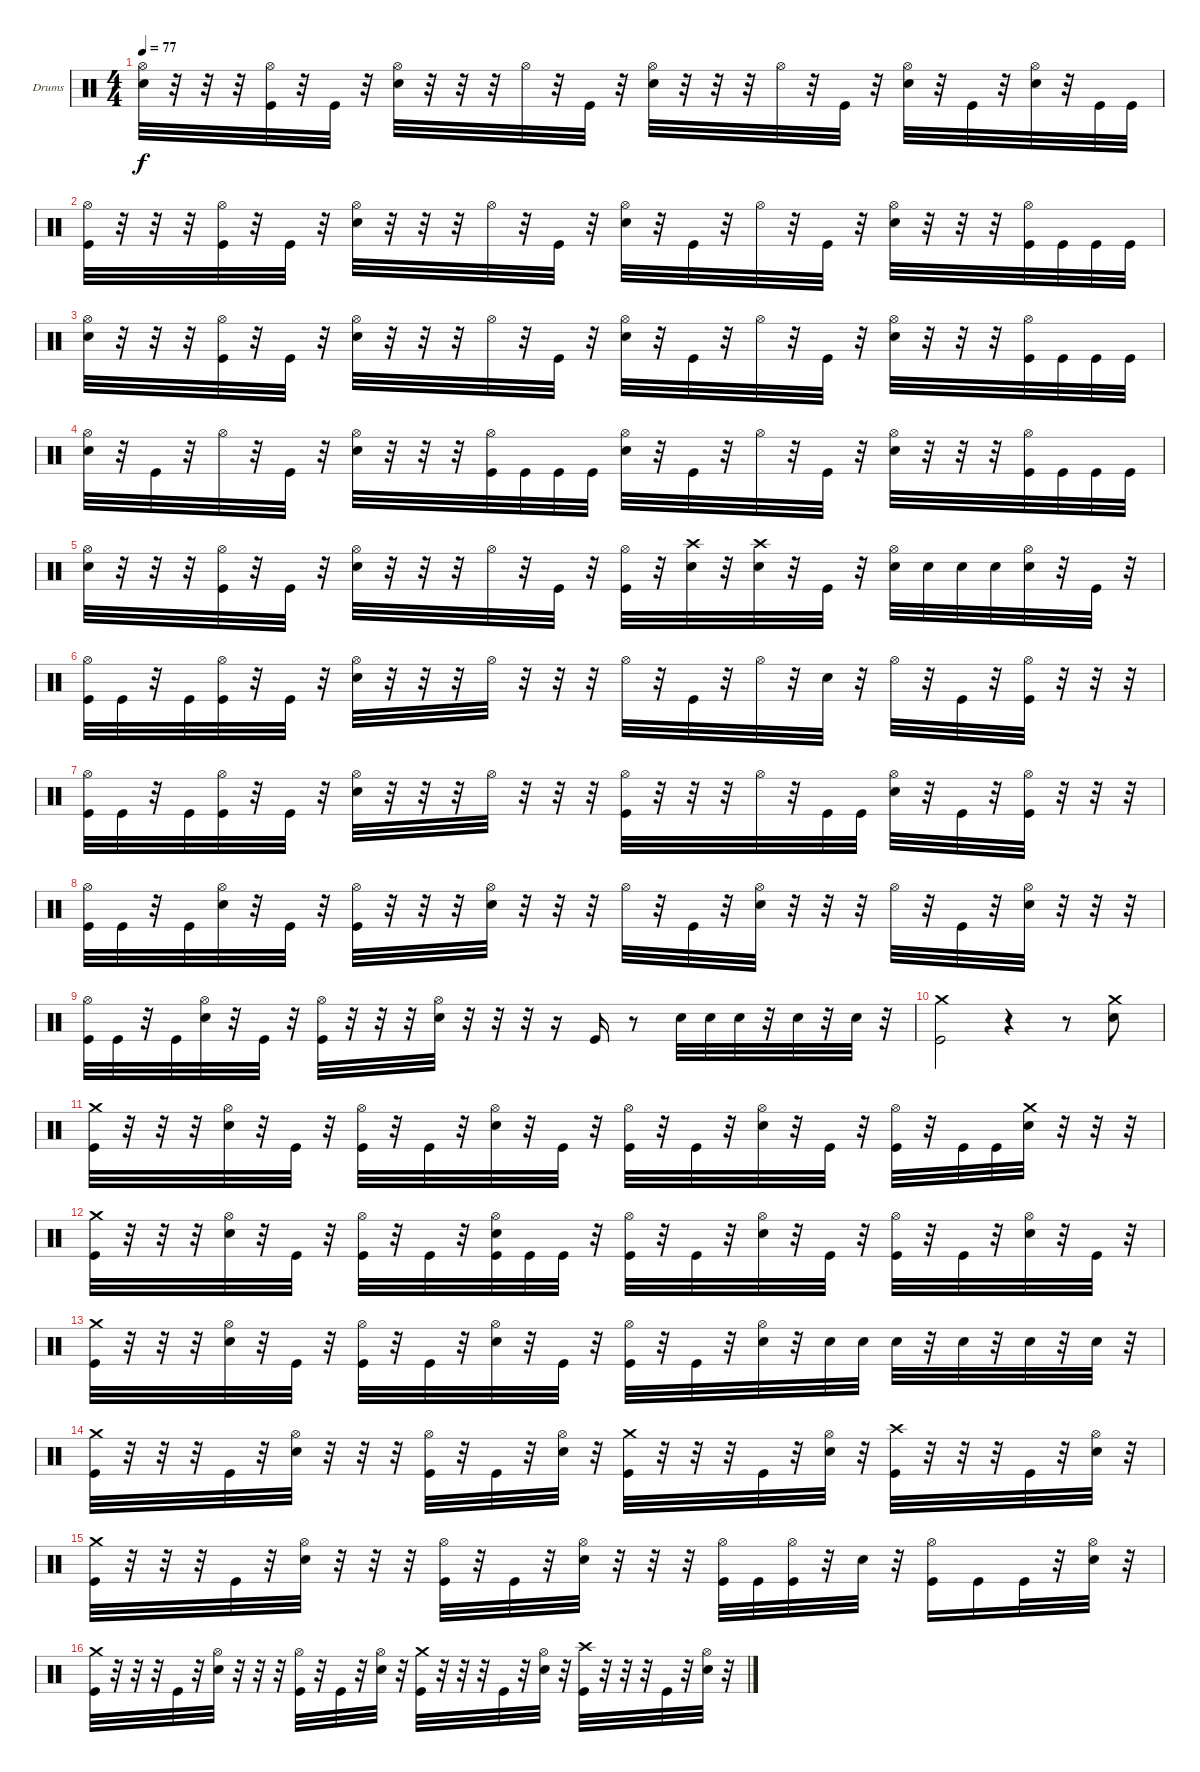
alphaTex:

\defaultSystemsLayout 4
\bracketExtendMode groupsimilarinstruments
\firstSystemTrackNameOrientation horizontal
\otherSystemsTrackNameOrientation horizontal
\track ("Drumkit" "Drums") {instrument percussion}
\staff {score}
\articulation defaults
\ts (4 4)
\tempo 77
\clef neutral
\ks c
("Hi-Hat (open)" "Snare (hit) 2").32{dy f} r.32 r.32 r.32 ("Hi-Hat (open)" "Kick (hit)").32 r.32 "Kick (hit)".32 r.32 ("Hi-Hat (open)" "Snare (hit) 2").32 r.32 r.32 r.32 "Hi-Hat (open)".32 r.32 "Kick (hit)".32 r.32 ("Hi-Hat (open)" "Snare (hit) 2").32 r.32 r.32 r.32 "Hi-Hat (open)".32 r.32 "Kick (hit)".32 r.32 ("Hi-Hat (open)" "Snare (hit) 2").32 r.32 "Kick (hit)".32 r.32 ("Hi-Hat (open)" "Snare (hit) 2").32 r.32 "Kick (hit)".32 "Kick (hit)".32 |
("Hi-Hat (open)" "Kick (hit)").32 r.32 r.32 r.32 ("Hi-Hat (open)" "Kick (hit)").32 r.32 "Kick (hit)".32 r.32 ("Hi-Hat (open)" "Snare (hit) 2").32 r.32 r.32 r.32 "Hi-Hat (open)".32 r.32 "Kick (hit)".32 r.32 ("Hi-Hat (open)" "Snare (hit) 2").32 r.32 "Kick (hit)".32 r.32 "Hi-Hat (open)".32 r.32 "Kick (hit)".32 r.32 ("Hi-Hat (open)" "Snare (hit) 2").32 r.32 r.32 r.32 ("Hi-Hat (open)" "Kick (hit)").32 "Kick (hit)".32 "Kick (hit)".32 "Kick (hit)".32 |
("Hi-Hat (open)" "Snare (hit) 2").32 r.32 r.32 r.32 ("Hi-Hat (open)" "Kick (hit)").32 r.32 "Kick (hit)".32 r.32 ("Hi-Hat (open)" "Snare (hit) 2").32 r.32 r.32 r.32 "Hi-Hat (open)".32 r.32 "Kick (hit)".32 r.32 ("Hi-Hat (open)" "Snare (hit) 2").32 r.32 "Kick (hit)".32 r.32 "Hi-Hat (open)".32 r.32 "Kick (hit)".32 r.32 ("Hi-Hat (open)" "Snare (hit) 2").32 r.32 r.32 r.32 ("Hi-Hat (open)" "Kick (hit)").32 "Kick (hit)".32 "Kick (hit)".32 "Kick (hit)".32 |
("Hi-Hat (open)" "Snare (hit) 2").32 r.32 "Kick (hit)".32 r.32 "Hi-Hat (open)".32 r.32 "Kick (hit)".32 r.32 ("Hi-Hat (open)" "Snare (hit) 2").32 r.32 r.32 r.32 ("Hi-Hat (open)" "Kick (hit)").32 "Kick (hit)".32 "Kick (hit)".32 "Kick (hit)".32 ("Hi-Hat (open)" "Snare (hit) 2").32 r.32 "Kick (hit)".32 r.32 "Hi-Hat (open)".32 r.32 "Kick (hit)".32 r.32 ("Hi-Hat (open)" "Snare (hit) 2").32 r.32 r.32 r.32 ("Hi-Hat (open)" "Kick (hit)").32 "Kick (hit)".32 "Kick (hit)".32 "Kick (hit)".32 |
("Hi-Hat (open)" "Snare (hit) 2").32 r.32 r.32 r.32 ("Hi-Hat (open)" "Kick (hit)").32 r.32 "Kick (hit)".32 r.32 ("Hi-Hat (open)" "Snare (hit) 2").32 r.32 r.32 r.32 "Hi-Hat (open)".32 r.32 "Kick (hit)".32 r.32 ("Hi-Hat (open)" "Kick (hit)").32 r.32 ("Crash high (hit)" "Snare (hit) 2").32 r.32 ("Crash high (hit)" "Snare (hit) 2").32 r.32 "Kick (hit)".32 r.32 ("Hi-Hat (open)" "Snare (hit) 2").32 "Snare (hit) 2".32 "Snare (hit) 2".32 "Snare (hit) 2".32 ("Hi-Hat (open)" "Snare (hit) 2").32 r.32 "Kick (hit)".32 r.32 |
("Hi-Hat (open)" "Kick (hit)").32 "Kick (hit)".32 r.32 "Kick (hit)".32 ("Hi-Hat (open)" "Kick (hit)").32 r.32 "Kick (hit)".32 r.32 ("Hi-Hat (open)" "Snare (hit) 2").32 r.32 r.32 r.32 "Hi-Hat (open)".32 r.32 r.32 r.32 "Hi-Hat (open)".32 r.32 "Kick (hit)".32 r.32 "Hi-Hat (open)".32 r.32 "Snare (hit) 2".32 r.32 "Hi-Hat (open)".32 r.32 "Kick (hit)".32 r.32 ("Hi-Hat (open)" "Kick (hit)").32 r.32 r.32 r.32 |
("Hi-Hat (open)" "Kick (hit)").32 "Kick (hit)".32 r.32 "Kick (hit)".32 ("Hi-Hat (open)" "Kick (hit)").32 r.32 "Kick (hit)".32 r.32 ("Hi-Hat (open)" "Snare (hit) 2").32 r.32 r.32 r.32 "Hi-Hat (open)".32 r.32 r.32 r.32 ("Hi-Hat (open)" "Kick (hit)").32 r.32 r.32 r.32 "Hi-Hat (open)".32 r.32 "Kick (hit)".32 "Kick (hit)".32 ("Hi-Hat (open)" "Snare (hit) 2").32 r.32 "Kick (hit)".32 r.32 ("Hi-Hat (open)" "Kick (hit)").32 r.32 r.32 r.32 |
("Hi-Hat (open)" "Kick (hit)").32 "Kick (hit)".32 r.32 "Kick (hit)".32 ("Hi-Hat (open)" "Snare (hit) 2").32 r.32 "Kick (hit)".32 r.32 ("Hi-Hat (open)" "Kick (hit)").32 r.32 r.32 r.32 ("Hi-Hat (open)" "Snare (hit) 2").32 r.32 r.32 r.32 "Hi-Hat (open)".32 r.32 "Kick (hit)".32 r.32 ("Hi-Hat (open)" "Snare (hit) 2").32 r.32 r.32 r.32 "Hi-Hat (open)".32 r.32 "Kick (hit)".32 r.32 ("Hi-Hat (open)" "Snare (hit) 2").32 r.32 r.32 r.32 |
("Hi-Hat (open)" "Kick (hit)").32 "Kick (hit)".32 r.32 "Kick (hit)".32 ("Hi-Hat (open)" "Snare (hit) 2").32 r.32 "Kick (hit)".32 r.32 ("Hi-Hat (open)" "Kick (hit)").32 r.32 r.32 r.32 ("Hi-Hat (open)" "Snare (hit) 2").32 r.32 r.32 r.32 r.16 "Kick (hit)".16 r.8 "Snare (hit) 2".32 "Snare (hit) 2".32 "Snare (hit) 2".32 r.32 "Snare (hit) 2".32 r.32 "Snare (hit) 2".32 r.32 |
("Kick (hit)" "Crash medium (hit)").2 r.4 r.8 ("Crash medium (hit)" "Snare (hit) 2").8 |
("Crash medium (hit)" "Kick (hit)").32 r.32 r.32 r.32 ("Hi-Hat (open)" "Snare (hit) 2").32 r.32 "Kick (hit)".32 r.32 ("Hi-Hat (open)" "Kick (hit)").32 r.32 "Kick (hit)".32 r.32 ("Hi-Hat (open)" "Snare (hit) 2").32 r.32 "Kick (hit)".32 r.32 ("Hi-Hat (open)" "Kick (hit)").32 r.32 "Kick (hit)".32 r.32 ("Hi-Hat (open)" "Snare (hit) 2").32 r.32 "Kick (hit)".32 r.32 ("Hi-Hat (open)" "Kick (hit)").32 r.32 "Kick (hit)".32 "Kick (hit)".32 ("Crash medium (hit)" "Snare (hit) 2").32 r.32 r.32 r.32 |
("Crash medium (hit)" "Kick (hit)").32 r.32 r.32 r.32 ("Hi-Hat (open)" "Snare (hit) 2").32 r.32 "Kick (hit)".32 r.32 ("Hi-Hat (open)" "Kick (hit)").32 r.32 "Kick (hit)".32 r.32 ("Hi-Hat (open)" "Snare (hit) 2" "Kick (hit)").32 "Kick (hit)".32 "Kick (hit)".32 r.32 ("Hi-Hat (open)" "Kick (hit)").32 r.32 "Kick (hit)".32 r.32 ("Hi-Hat (open)" "Snare (hit) 2").32 r.32 "Kick (hit)".32 r.32 ("Hi-Hat (open)" "Kick (hit)").32 r.32 "Kick (hit)".32 r.32 ("Hi-Hat (open)" "Snare (hit) 2").32 r.32 "Kick (hit)".32 r.32 |
("Crash medium (hit)" "Kick (hit)").32 r.32 r.32 r.32 ("Hi-Hat (open)" "Snare (hit) 2").32 r.32 "Kick (hit)".32 r.32 ("Hi-Hat (open)" "Kick (hit)").32 r.32 "Kick (hit)".32 r.32 ("Hi-Hat (open)" "Snare (hit) 2").32 r.32 "Kick (hit)".32 r.32 ("Hi-Hat (open)" "Kick (hit)").32 r.32 "Kick (hit)".32 r.32 ("Hi-Hat (open)" "Snare (hit) 2").32 r.32 "Snare (hit) 2".32 "Snare (hit) 2".32 "Snare (hit) 2".32 r.32 "Snare (hit) 2".32 r.32 "Snare (hit) 2".32 r.32 "Snare (hit) 2".32 r.32 |
("Crash medium (hit)" "Kick (hit)").32 r.32 r.32 r.32 "Kick (hit)".32 r.32 ("Hi-Hat (open)" "Snare (hit) 2").32 r.32 r.32 r.32 ("Hi-Hat (open)" "Kick (hit)").32 r.32 "Kick (hit)".32 r.32 ("Hi-Hat (open)" "Snare (hit) 2").32 r.32 ("Crash medium (hit)" "Kick (hit)").32 r.32 r.32 r.32 "Kick (hit)".32 r.32 ("Hi-Hat (open)" "Snare (hit) 2").32 r.32 ("Crash high (hit)" "Kick (hit)").32 r.32 r.32 r.32 "Kick (hit)".32 r.32 ("Hi-Hat (open)" "Snare (hit) 2").32 r.32 |
("Crash medium (hit)" "Kick (hit)").32 r.32 r.32 r.32 "Kick (hit)".32 r.32 ("Hi-Hat (open)" "Snare (hit) 2").32 r.32 r.32 r.32 ("Hi-Hat (open)" "Kick (hit)").32 r.32 "Kick (hit)".32 r.32 ("Hi-Hat (open)" "Snare (hit) 2").32 r.32 r.32 r.32 ("Hi-Hat (open)" "Kick (hit)").32 "Kick (hit)".32 ("Hi-Hat (open)" "Kick (hit)").32 r.32 "Snare (hit) 2".32 r.32 ("Hi-Hat (open)" "Kick (hit)").16 "Kick (hit)".16 "Kick (hit)".32 r.32 ("Hi-Hat (open)" "Snare (hit) 2").32 r.32 |
("Crash medium (hit)" "Kick (hit)").32 r.32 r.32 r.32 "Kick (hit)".32 r.32 ("Hi-Hat (open)" "Snare (hit) 2").32 r.32 r.32 r.32 ("Hi-Hat (open)" "Kick (hit)").32 r.32 "Kick (hit)".32 r.32 ("Hi-Hat (open)" "Snare (hit) 2").32 r.32 ("Crash medium (hit)" "Kick (hit)").32 r.32 r.32 r.32 "Kick (hit)".32 r.32 ("Hi-Hat (open)" "Snare (hit) 2").32 r.32 ("Crash high (hit)" "Kick (hit)").32 r.32 r.32 r.32 "Kick (hit)".32 r.32 ("Hi-Hat (open)" "Snare (hit) 2").32 r.32
